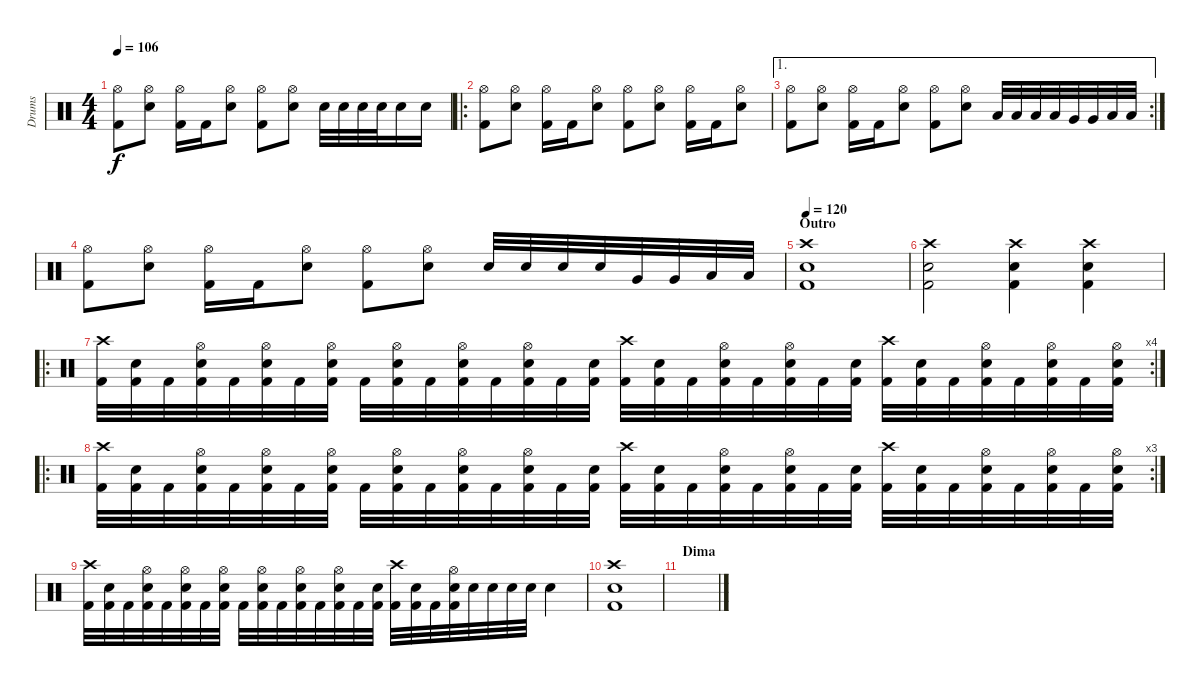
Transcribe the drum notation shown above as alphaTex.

\track ("Drums" "Drums") {instrument percussion}
\staff {score}
\articulation defaults
\ts (4 4)
\tempo 106
\clef neutral
\ks c
("Hi-Hat (open)" "Kick (hit) 2").8{dy f} ("Hi-Hat (open)" "Electric Snare (hit)").8 ("Hi-Hat (open)" "Kick (hit) 2").16 "Kick (hit) 2".16 ("Hi-Hat (open)" "Electric Snare (hit)").8 ("Hi-Hat (open)" "Kick (hit) 2").8 ("Hi-Hat (open)" "Electric Snare (hit)").8 "Electric Snare (hit)".32 "Electric Snare (hit)".32 "Electric Snare (hit)".32 "Electric Snare (hit)".32 "Electric Snare (hit)".16 "Electric Snare (hit)".16 |
\ro
("Hi-Hat (open)" "Kick (hit) 2").8 ("Hi-Hat (open)" "Electric Snare (hit)").8 ("Hi-Hat (open)" "Kick (hit) 2").16 "Kick (hit) 2".16 ("Hi-Hat (open)" "Electric Snare (hit)").8 ("Hi-Hat (open)" "Kick (hit) 2").8 ("Hi-Hat (open)" "Electric Snare (hit)").8 ("Hi-Hat (open)" "Kick (hit) 2").16 "Kick (hit) 2".16 ("Hi-Hat (open)" "Electric Snare (hit)").8 |
\ae 1
\rc 2
("Hi-Hat (open)" "Kick (hit) 2").8 ("Hi-Hat (open)" "Electric Snare (hit)").8 ("Hi-Hat (open)" "Kick (hit) 2").16 "Kick (hit) 2".16 ("Hi-Hat (open)" "Electric Snare (hit)").8 ("Hi-Hat (open)" "Kick (hit) 2").8 ("Hi-Hat (open)" "Electric Snare (hit)").8 "Low Tom (hit)".32 "Low Tom (hit)".32 "Low Tom (hit)".32 "Low Tom (hit)".32 "Very Low Tom (hit)".32 "Very Low Tom (hit)".32 "Low Floor Tom (hit)".32 "Low Floor Tom (hit)".32 |
("Hi-Hat (open)" "Kick (hit) 2").8 ("Hi-Hat (open)" "Electric Snare (hit)").8 ("Hi-Hat (open)" "Kick (hit) 2").16 "Kick (hit) 2".16 ("Hi-Hat (open)" "Electric Snare (hit)").8 ("Hi-Hat (open)" "Kick (hit) 2").8 ("Hi-Hat (open)" "Electric Snare (hit)").8 "Electric Snare (hit)".32 "Electric Snare (hit)".32 "Electric Snare (hit)".32 "Electric Snare (hit)".32 "Very Low Tom (hit)".32 "Very Low Tom (hit)".32 "Low Floor Tom (hit)".32 "Low Floor Tom (hit)".32 |
\section ("" "Outro")
\tempo 120
("Crash high (hit)" "Electric Snare (hit)" "Kick (hit) 2").1 |
("Crash high (hit)" "Electric Snare (hit)" "Kick (hit) 2").2 ("Crash high (hit)" "Electric Snare (hit)" "Kick (hit) 2").4 ("Crash high (hit)" "Electric Snare (hit)" "Kick (hit) 2").4 |
\ro
\rc 4
("Crash high (hit)" "Kick (hit) 2").32 ("Electric Snare (hit)" "Kick (hit) 2").32 "Kick (hit) 2".32 ("Electric Snare (hit)" "Hi-Hat (open)" "Kick (hit) 2").32 "Kick (hit) 2".32 ("Electric Snare (hit)" "Hi-Hat (open)" "Kick (hit) 2").32 "Kick (hit) 2".32 ("Electric Snare (hit)" "Hi-Hat (open)" "Kick (hit) 2").32 "Kick (hit) 2".32 ("Electric Snare (hit)" "Hi-Hat (open)" "Kick (hit) 2").32 "Kick (hit) 2".32 ("Electric Snare (hit)" "Hi-Hat (open)" "Kick (hit) 2").32 "Kick (hit) 2".32 ("Electric Snare (hit)" "Hi-Hat (open)" "Kick (hit) 2").32 "Kick (hit) 2".32 ("Electric Snare (hit)" "Kick (hit) 2").32 ("Crash high (hit)" "Kick (hit) 2").32 ("Electric Snare (hit)" "Kick (hit) 2").32 "Kick (hit) 2".32 ("Electric Snare (hit)" "Hi-Hat (open)" "Kick (hit) 2").32 "Kick (hit) 2".32 ("Electric Snare (hit)" "Hi-Hat (open)" "Kick (hit) 2").32 "Kick (hit) 2".32 ("Electric Snare (hit)" "Kick (hit) 2").32 ("Crash high (hit)" "Kick (hit) 2").32 ("Electric Snare (hit)" "Kick (hit) 2").32 "Kick (hit) 2".32 ("Electric Snare (hit)" "Hi-Hat (open)" "Kick (hit) 2").32 "Kick (hit) 2".32 ("Electric Snare (hit)" "Hi-Hat (open)" "Kick (hit) 2").32 "Kick (hit) 2".32 ("Electric Snare (hit)" "Hi-Hat (open)" "Kick (hit) 2").32 |
\ro
\rc 3
("Crash high (hit)" "Kick (hit) 2").32 ("Electric Snare (hit)" "Kick (hit) 2").32 "Kick (hit) 2".32 ("Electric Snare (hit)" "Hi-Hat (open)" "Kick (hit) 2").32 "Kick (hit) 2".32 ("Electric Snare (hit)" "Hi-Hat (open)" "Kick (hit) 2").32 "Kick (hit) 2".32 ("Electric Snare (hit)" "Hi-Hat (open)" "Kick (hit) 2").32 "Kick (hit) 2".32 ("Electric Snare (hit)" "Hi-Hat (open)" "Kick (hit) 2").32 "Kick (hit) 2".32 ("Electric Snare (hit)" "Hi-Hat (open)" "Kick (hit) 2").32 "Kick (hit) 2".32 ("Electric Snare (hit)" "Hi-Hat (open)" "Kick (hit) 2").32 "Kick (hit) 2".32 ("Electric Snare (hit)" "Kick (hit) 2").32 ("Crash high (hit)" "Kick (hit) 2").32 ("Electric Snare (hit)" "Kick (hit) 2").32 "Kick (hit) 2".32 ("Electric Snare (hit)" "Hi-Hat (open)" "Kick (hit) 2").32 "Kick (hit) 2".32 ("Electric Snare (hit)" "Hi-Hat (open)" "Kick (hit) 2").32 "Kick (hit) 2".32 ("Electric Snare (hit)" "Kick (hit) 2").32 ("Crash high (hit)" "Kick (hit) 2").32 ("Electric Snare (hit)" "Kick (hit) 2").32 "Kick (hit) 2".32 ("Electric Snare (hit)" "Hi-Hat (open)" "Kick (hit) 2").32 "Kick (hit) 2".32 ("Electric Snare (hit)" "Hi-Hat (open)" "Kick (hit) 2").32 "Kick (hit) 2".32 ("Electric Snare (hit)" "Hi-Hat (open)" "Kick (hit) 2").32 |
("Crash high (hit)" "Kick (hit) 2").32 ("Electric Snare (hit)" "Kick (hit) 2").32 "Kick (hit) 2".32 ("Electric Snare (hit)" "Hi-Hat (open)" "Kick (hit) 2").32 "Kick (hit) 2".32 ("Electric Snare (hit)" "Hi-Hat (open)" "Kick (hit) 2").32 "Kick (hit) 2".32 ("Electric Snare (hit)" "Hi-Hat (open)" "Kick (hit) 2").32 "Kick (hit) 2".32 ("Electric Snare (hit)" "Hi-Hat (open)" "Kick (hit) 2").32 "Kick (hit) 2".32 ("Electric Snare (hit)" "Hi-Hat (open)" "Kick (hit) 2").32 "Kick (hit) 2".32 ("Electric Snare (hit)" "Hi-Hat (open)" "Kick (hit) 2").32 "Kick (hit) 2".32 ("Electric Snare (hit)" "Kick (hit) 2").32 ("Crash high (hit)" "Kick (hit) 2").32 ("Electric Snare (hit)" "Kick (hit) 2").32 "Kick (hit) 2".32 ("Electric Snare (hit)" "Hi-Hat (open)" "Kick (hit) 2").32 "Electric Snare (hit)".32 "Electric Snare (hit)".32 "Electric Snare (hit)".32 "Electric Snare (hit)".32 "Electric Snare (hit)".4 |
("Crash high (hit)" "Electric Snare (hit)" "Kick (hit) 2").1 |
\section ("" "Dima")
